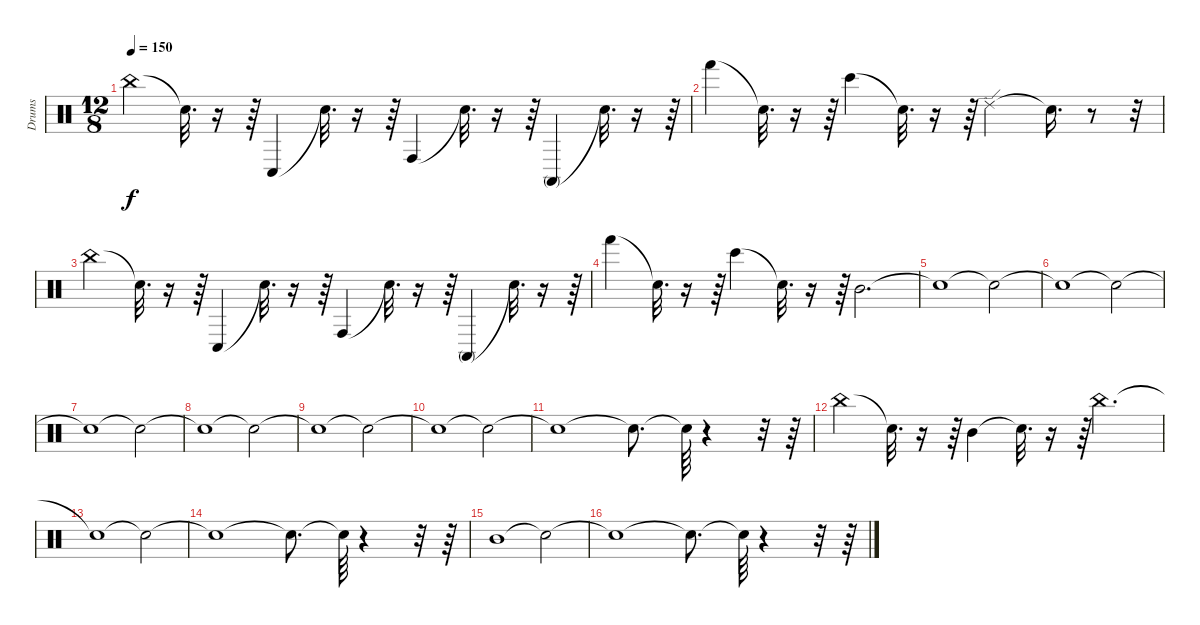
\track ("Drums" "Drums") {instrument percussion}
\staff {score}
\articulation defaults
\ts (12 8)
\tempo 150
\clef neutral
\ks c "China (hit)".4{dy f} "Snare (hit)"{t}.32{d}
r.16 r.64 "Conga low (hit)".4 "Snare (hit)"{t}.32{d} r.16 r.64 "Conga high (hit)".4 "Snare (hit)"{t}.32{d} r.16 r.64 "Conga high (mute)".4 "Snare (hit)"{t}.32{d} r.16 r.64 |
"Hand (hit)".4 "Snare (hit)"{t}.32{d} r.16 r.64 "Bongo High (hit)".4 "Snare (hit)"{t}.32{d} r.16 r.64 "Ride (edge) 2".2 "Snare (hit)"{t}.16{d} r.8 r.32 |
"China (hit)".4 "Snare (hit)"{t}.32{d} r.16 r.64 "Conga low (hit)".4 "Snare (hit)"{t}.32{d} r.16 r.64 "Conga high (hit)".4 "Snare (hit)"{t}.32{d} r.16 r.64 "Conga high (mute)".4 "Snare (hit)"{t}.32{d} r.16 r.64 |
"Hand (hit)".4 "Snare (hit)"{t}.32{d} r.16 r.64 "Bongo High (hit)".4 "Snare (hit)"{t}.32{d} r.16 r.64 "Mid Tom (hit)".2{d} |
"Snare (hit)"{t}.1 "Snare (hit)"{t}.2 |
"Snare (hit)"{t}.1 "Snare (hit)"{t}.2 |
"Snare (hit)"{t}.1 "Snare (hit)"{t}.2 |
"Snare (hit)"{t}.1 "Snare (hit)"{t}.2 |
"Snare (hit)"{t}.1 "Snare (hit)"{t}.2 |
"Snare (hit)"{t}.1 "Snare (hit)"{t}.2 |
"Snare (hit)"{t}.1 "Snare (hit)"{t}.8{d} "Snare (hit)"{t}.64 r.4 r.32 r.64 |
"China (hit)".4 "Snare (hit)"{t}.32{d} r.16 r.64 "Mid Tom (hit)".4 "Snare (hit)"{t}.32{d} r.16 r.64 "China (hit)".2{d} |
"Snare (hit)"{t}.1 "Snare (hit)"{t}.2 |
"Snare (hit)"{t}.1 "Snare (hit)"{t}.8{d} "Snare (hit)"{t}.64 r.4 r.32 r.64 |
"Mid Tom (hit)".1 "Snare (hit)"{t}.2 |
"Snare (hit)"{t}.1 "Snare (hit)"{t}.8{d} "Snare (hit)"{t}.64 r.4 r.32 r.64
